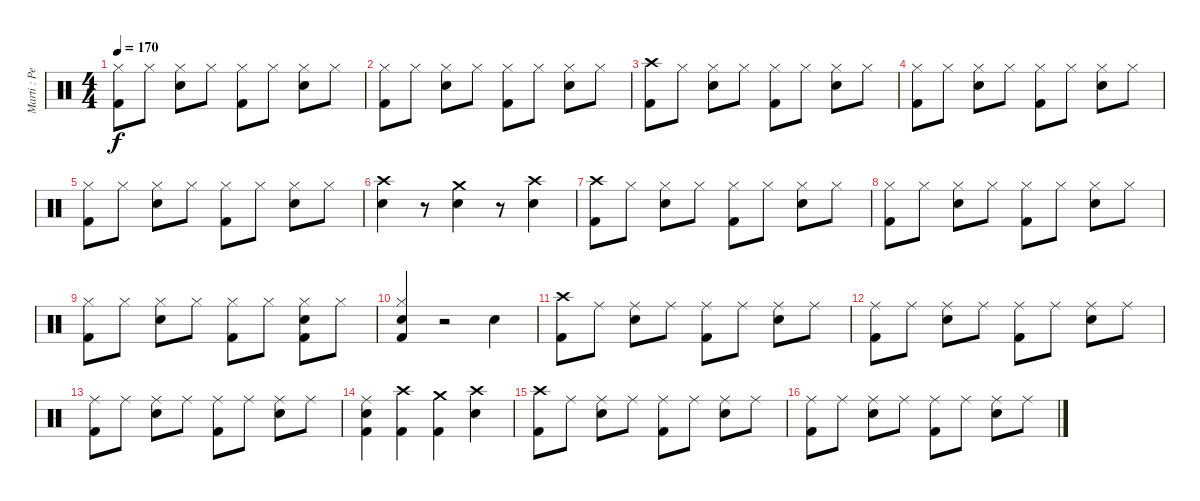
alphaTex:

\track ("Marti : Percussion" "Marti : Pe") {instrument percussion}
\staff {score}
\articulation defaults
\ts (4 4)
\tempo 170
\clef neutral
\ks c
("Kick (hit) 2" "Hi-Hat (closed)").8{dy f} "Hi-Hat (closed)".8 ("Electric Snare (hit)" "Hi-Hat (closed)").8 "Hi-Hat (closed)".8 ("Kick (hit) 2" "Hi-Hat (closed)").8 "Hi-Hat (closed)".8 ("Electric Snare (hit)" "Hi-Hat (closed)").8 "Hi-Hat (closed)".8 |
("Kick (hit) 2" "Hi-Hat (closed)").8 "Hi-Hat (closed)".8 ("Electric Snare (hit)" "Hi-Hat (closed)").8 "Hi-Hat (closed)".8 ("Kick (hit) 2" "Hi-Hat (closed)").8 "Hi-Hat (closed)".8 ("Electric Snare (hit)" "Hi-Hat (closed)").8 "Hi-Hat (closed)".8 |
("Kick (hit) 2" "Crash high (hit)").8 "Hi-Hat (closed)".8 ("Electric Snare (hit)" "Hi-Hat (closed)").8 "Hi-Hat (closed)".8 ("Kick (hit) 2" "Hi-Hat (closed)").8 "Hi-Hat (closed)".8 ("Electric Snare (hit)" "Hi-Hat (closed)").8 "Hi-Hat (closed)".8 |
("Kick (hit) 2" "Hi-Hat (closed)").8 "Hi-Hat (closed)".8 ("Electric Snare (hit)" "Hi-Hat (closed)").8 "Hi-Hat (closed)".8 ("Kick (hit) 2" "Hi-Hat (closed)").8 "Hi-Hat (closed)".8 ("Electric Snare (hit)" "Hi-Hat (closed)").8 "Hi-Hat (closed)".8 |
("Kick (hit) 2" "Hi-Hat (closed)").8 "Hi-Hat (closed)".8 ("Electric Snare (hit)" "Hi-Hat (closed)").8 "Hi-Hat (closed)".8 ("Kick (hit) 2" "Hi-Hat (closed)").8 "Hi-Hat (closed)".8 ("Electric Snare (hit)" "Hi-Hat (closed)").8 "Hi-Hat (closed)".8 |
("Electric Snare (hit)" "Crash high (hit)").4 r.8 ("Electric Snare (hit)" "Crash medium (hit)").4 r.8 ("Electric Snare (hit)" "Crash high (hit)").4 |
("Kick (hit) 2" "Crash high (hit)").8 "Hi-Hat (closed)".8 ("Electric Snare (hit)" "Hi-Hat (closed)").8 "Hi-Hat (closed)".8 ("Kick (hit) 2" "Hi-Hat (closed)").8 "Hi-Hat (closed)".8 ("Electric Snare (hit)" "Hi-Hat (closed)").8 "Hi-Hat (closed)".8 |
("Kick (hit) 2" "Hi-Hat (closed)").8 "Hi-Hat (closed)".8 ("Electric Snare (hit)" "Hi-Hat (closed)").8 "Hi-Hat (closed)".8 ("Kick (hit) 2" "Hi-Hat (closed)").8 "Hi-Hat (closed)".8 ("Electric Snare (hit)" "Hi-Hat (closed)").8 "Hi-Hat (closed)".8 |
("Kick (hit) 2" "Hi-Hat (closed)").8 "Hi-Hat (closed)".8 ("Electric Snare (hit)" "Hi-Hat (closed)").8 "Hi-Hat (closed)".8 ("Kick (hit) 2" "Hi-Hat (closed)").8 "Hi-Hat (closed)".8 ("Kick (hit) 2" "Electric Snare (hit)" "Hi-Hat (closed)").8 "Hi-Hat (closed)".8 |
("Kick (hit) 2" "Electric Snare (hit)" "Hi-Hat (closed)").4 r.2 "Electric Snare (hit)".4 |
("Kick (hit) 2" "Crash high (hit)").8 "Ride (middle)".8 ("Electric Snare (hit)" "Ride (middle)").8 "Ride (middle)".8 ("Kick (hit) 2" "Ride (middle)").8 "Ride (middle)".8 ("Electric Snare (hit)" "Ride (middle)").8 "Ride (middle)".8 |
("Kick (hit) 2" "Ride (middle)").8 "Ride (middle)".8 ("Electric Snare (hit)" "Ride (middle)").8 "Ride (middle)".8 ("Kick (hit) 2" "Ride (middle)").8 "Ride (middle)".8 ("Electric Snare (hit)" "Ride (middle)").8 "Ride (middle)".8 |
("Kick (hit) 2" "Ride (middle)").8 "Ride (middle)".8 ("Electric Snare (hit)" "Ride (middle)").8 "Ride (middle)".8 ("Kick (hit) 2" "Ride (middle)").8 "Ride (middle)".8 ("Electric Snare (hit)" "Ride (middle)").8 "Ride (middle)".8 |
("Kick (hit) 2" "Electric Snare (hit)" "Ride (middle)").4 ("Kick (hit) 2" "Crash high (hit)").4 ("Kick (hit) 2" "Crash medium (hit)").4 ("Electric Snare (hit)" "Crash high (hit)").4 |
("Kick (hit) 2" "Crash high (hit)").8 "Ride (middle)".8 ("Electric Snare (hit)" "Ride (middle)").8 "Ride (middle)".8 ("Kick (hit) 2" "Ride (middle)").8 "Ride (middle)".8 ("Electric Snare (hit)" "Ride (middle)").8 "Ride (middle)".8 |
("Kick (hit) 2" "Ride (middle)").8 "Ride (middle)".8 ("Electric Snare (hit)" "Ride (middle)").8 "Ride (middle)".8 ("Kick (hit) 2" "Ride (middle)").8 "Ride (middle)".8 ("Electric Snare (hit)" "Ride (middle)").8 "Ride (middle)".8
